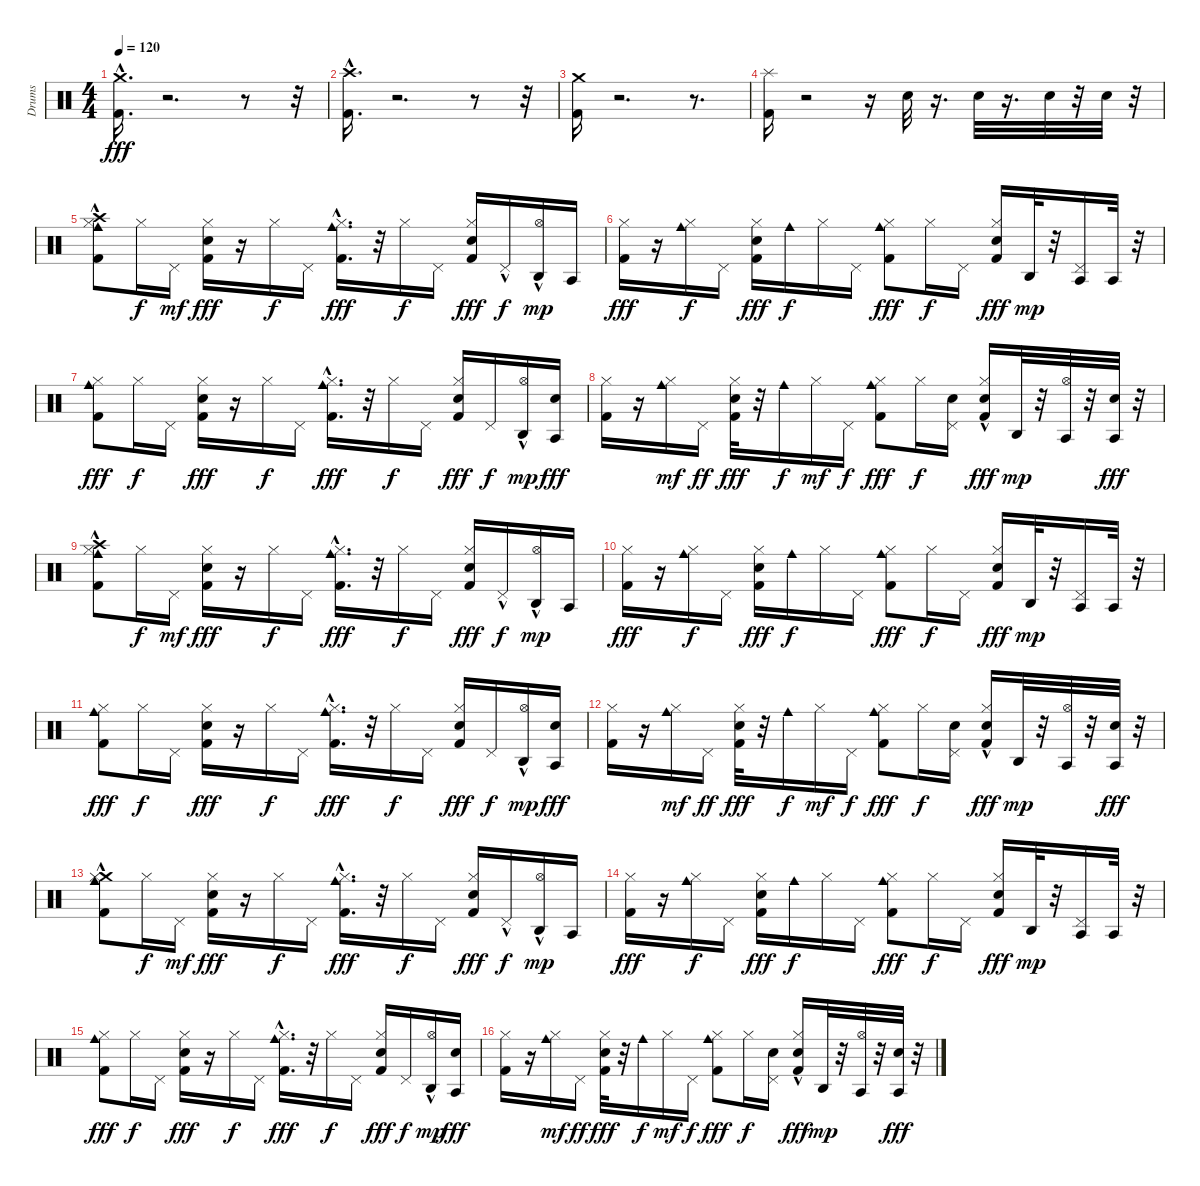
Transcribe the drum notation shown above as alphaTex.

\track ("Drums" "Drums") {instrument percussion}
\staff {score}
\articulation defaults
\ts (4 4)
\tempo 120
\clef neutral
\ks c
("Kick (hit) 2"{hac} "Crash medium (hit)").16{d dy fff} r.2{d} r.8 r.32 |
("Kick (hit) 2"{hac} "Crash high (hit)").16{d} r.2{d} r.8 r.32 |
("Kick (hit) 2" "Crash medium (hit)").16 r.2{d} r.8{d} |
("Kick (hit) 2" "Splash (hit)").16 r.2 r.16 "Electric Snare (hit)".32 r.16{d} "Electric Snare (hit)".32 r.16{d} "Electric Snare (hit)".32 r.32 "Electric Snare (hit)".32 r.32 |
("Cowbell medium (hit)" "Crash high (hit)"{hac} "Hi-Hat (closed)" "Kick (hit) 2").8 "Hi-Hat (closed)".16{dy f} "Pedal Hi-Hat (hit)".16{dy mf} ("Electric Snare (hit)" "Kick (hit) 2" "Hi-Hat (closed)").16{dy fff} r.16 "Hi-Hat (closed)".16{dy f} "Pedal Hi-Hat (hit)".16 ("Cowbell medium (hit)"{hac} "Kick (hit) 2" "Hi-Hat (closed)").16{d dy fff} r.32 "Hi-Hat (closed)".16{dy f} "Pedal Hi-Hat (hit)".16 ("Kick (hit) 2" "Electric Snare (hit)" "Hi-Hat (closed)").16{dy fff} "Pedal Hi-Hat (hit)"{hac}.16{dy f} ("Agogo high (hit)" "Hi-Hat (open)"{hac}).16{dy mp} "Agogo tow (hit)".16 |
("Kick (hit) 2" "Hi-Hat (closed)").16{dy fff} r.16 ("Cowbell medium (hit)" "Hi-Hat (closed)").16{dy f} "Pedal Hi-Hat (hit)".16 ("Hi-Hat (closed)" "Kick (hit) 2" "Electric Snare (hit)").16{dy fff} "Cowbell medium (hit)".16{dy f} "Hi-Hat (closed)".16 "Pedal Hi-Hat (hit)".16 ("Cowbell medium (hit)" "Kick (hit) 2" "Hi-Hat (closed)").8{dy fff} "Hi-Hat (closed)".16{dy f} "Pedal Hi-Hat (hit)".16 ("Electric Snare (hit)" "Kick (hit) 2" "Hi-Hat (closed)").16{dy fff} "Agogo high (hit)".32{dy mp} r.32 ("Agogo tow (hit)" "Pedal Hi-Hat (hit)").16 "Agogo tow (hit)".32 r.32 |
("Cowbell medium (hit)" "Kick (hit) 2" "Hi-Hat (closed)").8{dy fff} "Hi-Hat (closed)".16{dy f} "Pedal Hi-Hat (hit)".16 ("Electric Snare (hit)" "Kick (hit) 2" "Hi-Hat (closed)").16{dy fff} r.16 "Hi-Hat (closed)".16{dy f} "Pedal Hi-Hat (hit)".16 ("Cowbell medium (hit)"{hac} "Hi-Hat (closed)" "Kick (hit) 2").16{d dy fff} r.32 "Hi-Hat (closed)".16{dy f} "Pedal Hi-Hat (hit)".16 ("Kick (hit) 2" "Electric Snare (hit)" "Hi-Hat (closed)").16{dy fff} "Pedal Hi-Hat (hit)".16{dy f} ("Agogo high (hit)" "Hi-Hat (open)"{hac}).16{dy mp} ("Agogo tow (hit)" "Electric Snare (hit)").16{dy fff} |
("Kick (hit) 2" "Hi-Hat (closed)").16 r.16 ("Cowbell medium (hit)" "Hi-Hat (closed)").16{dy mf} "Pedal Hi-Hat (hit)".16{dy ff} ("Electric Snare (hit)" "Kick (hit) 2" "Hi-Hat (closed)").32{dy fff} r.32 "Cowbell medium (hit)".16{dy f} "Hi-Hat (closed)".16{dy mf} "Pedal Hi-Hat (hit)".16{dy f} ("Cowbell medium (hit)" "Hi-Hat (closed)" "Kick (hit) 2").8{dy fff} "Hi-Hat (closed)".16{dy f} ("Pedal Hi-Hat (hit)" "Electric Snare (hit)").16 ("Hi-Hat (closed)" "Kick (hit) 2"{hac} "Electric Snare (hit)").16{dy fff} "Agogo high (hit)".32{dy mp} r.32 ("Agogo tow (hit)" "Hi-Hat (open)").32 r.32 ("Agogo tow (hit)" "Electric Snare (hit)").32{dy fff} r.32 |
("Cowbell medium (hit)" "Crash high (hit)"{hac} "Hi-Hat (closed)" "Kick (hit) 2").8 "Hi-Hat (closed)".16{dy f} "Pedal Hi-Hat (hit)".16{dy mf} ("Electric Snare (hit)" "Kick (hit) 2" "Hi-Hat (closed)").16{dy fff} r.16 "Hi-Hat (closed)".16{dy f} "Pedal Hi-Hat (hit)".16 ("Cowbell medium (hit)"{hac} "Kick (hit) 2" "Hi-Hat (closed)").16{d dy fff} r.32 "Hi-Hat (closed)".16{dy f} "Pedal Hi-Hat (hit)".16 ("Kick (hit) 2" "Electric Snare (hit)" "Hi-Hat (closed)").16{dy fff} "Pedal Hi-Hat (hit)"{hac}.16{dy f} ("Agogo high (hit)" "Hi-Hat (open)"{hac}).16{dy mp} "Agogo tow (hit)".16 |
("Kick (hit) 2" "Hi-Hat (closed)").16{dy fff} r.16 ("Cowbell medium (hit)" "Hi-Hat (closed)").16{dy f} "Pedal Hi-Hat (hit)".16 ("Hi-Hat (closed)" "Kick (hit) 2" "Electric Snare (hit)").16{dy fff} "Cowbell medium (hit)".16{dy f} "Hi-Hat (closed)".16 "Pedal Hi-Hat (hit)".16 ("Cowbell medium (hit)" "Kick (hit) 2" "Hi-Hat (closed)").8{dy fff} "Hi-Hat (closed)".16{dy f} "Pedal Hi-Hat (hit)".16 ("Electric Snare (hit)" "Kick (hit) 2" "Hi-Hat (closed)").16{dy fff} "Agogo high (hit)".32{dy mp} r.32 ("Agogo tow (hit)" "Pedal Hi-Hat (hit)").16 "Agogo tow (hit)".32 r.32 |
("Cowbell medium (hit)" "Kick (hit) 2" "Hi-Hat (closed)").8{dy fff} "Hi-Hat (closed)".16{dy f} "Pedal Hi-Hat (hit)".16 ("Electric Snare (hit)" "Kick (hit) 2" "Hi-Hat (closed)").16{dy fff} r.16 "Hi-Hat (closed)".16{dy f} "Pedal Hi-Hat (hit)".16 ("Cowbell medium (hit)"{hac} "Hi-Hat (closed)" "Kick (hit) 2").16{d dy fff} r.32 "Hi-Hat (closed)".16{dy f} "Pedal Hi-Hat (hit)".16 ("Kick (hit) 2" "Electric Snare (hit)" "Hi-Hat (closed)").16{dy fff} "Pedal Hi-Hat (hit)".16{dy f} ("Agogo high (hit)" "Hi-Hat (open)"{hac}).16{dy mp} ("Agogo tow (hit)" "Electric Snare (hit)").16{dy fff} |
("Kick (hit) 2" "Hi-Hat (closed)").16 r.16 ("Cowbell medium (hit)" "Hi-Hat (closed)").16{dy mf} "Pedal Hi-Hat (hit)".16{dy ff} ("Electric Snare (hit)" "Kick (hit) 2" "Hi-Hat (closed)").32{dy fff} r.32 "Cowbell medium (hit)".16{dy f} "Hi-Hat (closed)".16{dy mf} "Pedal Hi-Hat (hit)".16{dy f} ("Cowbell medium (hit)" "Hi-Hat (closed)" "Kick (hit) 2").8{dy fff} "Hi-Hat (closed)".16{dy f} ("Pedal Hi-Hat (hit)" "Electric Snare (hit)").16 ("Hi-Hat (closed)" "Kick (hit) 2"{hac} "Electric Snare (hit)").16{dy fff} "Agogo high (hit)".32{dy mp} r.32 ("Agogo tow (hit)" "Hi-Hat (open)").32 r.32 ("Agogo tow (hit)" "Electric Snare (hit)").32{dy fff} r.32 |
("Cowbell medium (hit)" "Crash medium (hit)"{hac} "Hi-Hat (closed)" "Kick (hit) 2").8 "Hi-Hat (closed)".16{dy f} "Pedal Hi-Hat (hit)".16{dy mf} ("Electric Snare (hit)" "Kick (hit) 2" "Hi-Hat (closed)").16{dy fff} r.16 "Hi-Hat (closed)".16{dy f} "Pedal Hi-Hat (hit)".16 ("Cowbell medium (hit)"{hac} "Kick (hit) 2" "Hi-Hat (closed)").16{d dy fff} r.32 "Hi-Hat (closed)".16{dy f} "Pedal Hi-Hat (hit)".16 ("Kick (hit) 2" "Electric Snare (hit)" "Hi-Hat (closed)").16{dy fff} "Pedal Hi-Hat (hit)"{hac}.16{dy f} ("Agogo high (hit)" "Hi-Hat (open)"{hac}).16{dy mp} "Agogo tow (hit)".16 |
("Kick (hit) 2" "Hi-Hat (closed)").16{dy fff} r.16 ("Cowbell medium (hit)" "Hi-Hat (closed)").16{dy f} "Pedal Hi-Hat (hit)".16 ("Hi-Hat (closed)" "Kick (hit) 2" "Electric Snare (hit)").16{dy fff} "Cowbell medium (hit)".16{dy f} "Hi-Hat (closed)".16 "Pedal Hi-Hat (hit)".16 ("Cowbell medium (hit)" "Kick (hit) 2" "Hi-Hat (closed)").8{dy fff} "Hi-Hat (closed)".16{dy f} "Pedal Hi-Hat (hit)".16 ("Electric Snare (hit)" "Kick (hit) 2" "Hi-Hat (closed)").16{dy fff} "Agogo high (hit)".32{dy mp} r.32 ("Agogo tow (hit)" "Pedal Hi-Hat (hit)").16 "Agogo tow (hit)".32 r.32 |
("Cowbell medium (hit)" "Kick (hit) 2" "Hi-Hat (closed)").8{dy fff} "Hi-Hat (closed)".16{dy f} "Pedal Hi-Hat (hit)".16 ("Electric Snare (hit)" "Kick (hit) 2" "Hi-Hat (closed)").16{dy fff} r.16 "Hi-Hat (closed)".16{dy f} "Pedal Hi-Hat (hit)".16 ("Cowbell medium (hit)"{hac} "Hi-Hat (closed)" "Kick (hit) 2").16{d dy fff} r.32 "Hi-Hat (closed)".16{dy f} "Pedal Hi-Hat (hit)".16 ("Kick (hit) 2" "Electric Snare (hit)" "Hi-Hat (closed)").16{dy fff} "Pedal Hi-Hat (hit)".16{dy f} ("Agogo high (hit)" "Hi-Hat (open)"{hac}).16{dy mp} ("Agogo tow (hit)" "Electric Snare (hit)").16{dy fff} |
("Kick (hit) 2" "Hi-Hat (closed)").16 r.16 ("Cowbell medium (hit)" "Hi-Hat (closed)").16{dy mf} "Pedal Hi-Hat (hit)".16{dy ff} ("Electric Snare (hit)" "Kick (hit) 2" "Hi-Hat (closed)").32{dy fff} r.32 "Cowbell medium (hit)".16{dy f} "Hi-Hat (closed)".16{dy mf} "Pedal Hi-Hat (hit)".16{dy f} ("Cowbell medium (hit)" "Hi-Hat (closed)" "Kick (hit) 2").8{dy fff} "Hi-Hat (closed)".16{dy f} ("Pedal Hi-Hat (hit)" "Electric Snare (hit)").16 ("Hi-Hat (closed)" "Kick (hit) 2"{hac} "Electric Snare (hit)").16{dy fff} "Agogo high (hit)".32{dy mp} r.32 ("Agogo tow (hit)" "Hi-Hat (open)").32 r.32 ("Agogo tow (hit)" "Electric Snare (hit)").32{dy fff} r.32
